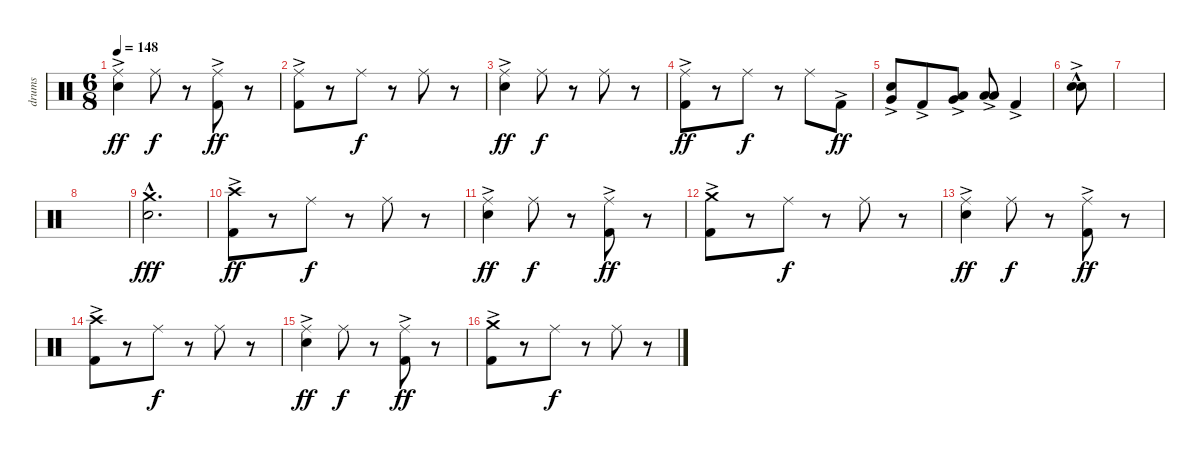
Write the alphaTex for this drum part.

\track ("drums" "drums") {instrument percussion}
\staff {score}
\articulation defaults
\ts (6 8)
\tempo 148
\clef neutral
\ks c
("Ride (middle)" "Electric Snare (hit)"{ac}).4{dy ff} "Ride (middle)".8{dy f} r.8 ("Ride (middle)" "Kick (hit) 2"{ac}).8{dy ff} r.8 |
("Ride (middle)" "Kick (hit) 2"{ac}).8 r.8 "Ride (middle)".8{dy f} r.8 "Ride (middle)".8 r.8 |
("Ride (middle)" "Electric Snare (hit)"{ac}).4{dy ff} "Ride (middle)".8{dy f} r.8 "Ride (middle)".8 r.8 |
("Ride (middle)" "Kick (hit) 2"{ac}).8{dy ff} r.8 "Ride (middle)".8{dy f} r.8 "Ride (middle)".8 "Kick (hit) 2"{ac}.8{dy ff} |
("Electric Snare (hit)"{ac} "Very Low Tom (hit)"{ac}).8 "Kick (hit) 2"{ac}.8 ("Very Low Tom (hit)"{ac} "Low Floor Tom (hit)"{ac}).8 ("Low Floor Tom (hit)"{ac} "Low Floor Tom (hit)"{ac}).8 "Kick (hit) 2"{ac}.4 |
("Electric Snare (hit)"{hac} "Electric Snare (hit)"{ac}).8 |
|
|
("Crash medium (hit)" "Electric Snare (hit)"{hac}).2{d dy fff} |
("Crash high (hit)" "Kick (hit) 2"{ac}).8{dy ff} r.8 "Ride (middle)".8{dy f} r.8 "Ride (middle)".8 r.8 |
("Ride (middle)" "Electric Snare (hit)"{ac}).4{dy ff} "Ride (middle)".8{dy f} r.8 ("Ride (middle)" "Kick (hit) 2"{ac}).8{dy ff} r.8 |
("Crash medium (hit)" "Kick (hit) 2"{ac}).8 r.8 "Ride (middle)".8{dy f} r.8 "Ride (middle)".8 r.8 |
("Ride (middle)" "Electric Snare (hit)"{ac}).4{dy ff} "Ride (middle)".8{dy f} r.8 ("Ride (middle)" "Kick (hit) 2"{ac}).8{dy ff} r.8 |
("Crash high (hit)" "Kick (hit) 2"{ac}).8 r.8 "Ride (middle)".8{dy f} r.8 "Ride (middle)".8 r.8 |
("Ride (middle)" "Electric Snare (hit)"{ac}).4{dy ff} "Ride (middle)".8{dy f} r.8 ("Ride (middle)" "Kick (hit) 2"{ac}).8{dy ff} r.8 |
("Crash medium (hit)" "Kick (hit) 2"{ac}).8 r.8 "Ride (middle)".8{dy f} r.8 "Ride (middle)".8 r.8
